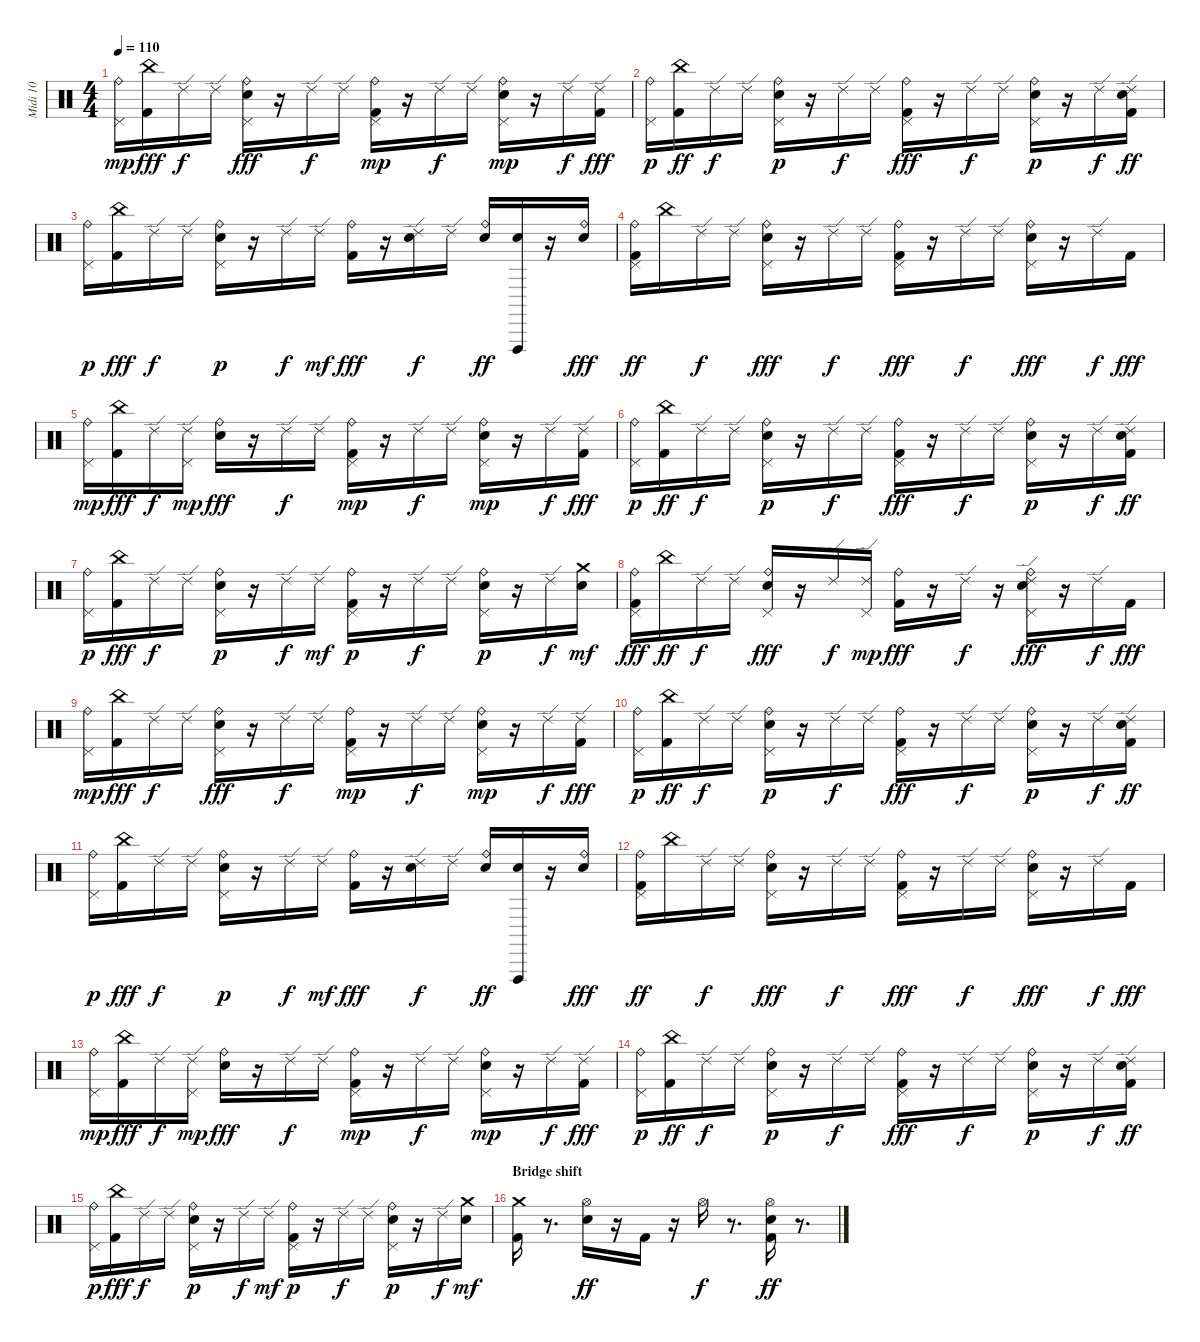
\track ("Midi 10" "Midi 10") {instrument percussion}
\staff {score}
\articulation defaults
\ts (4 4)
\tempo 110
\clef neutral
\ks c
("Ride (bell)" "Pedal Hi-Hat (hit)").16{dy mp} ("China (hit)" "Kick (hit) 2").16{dy fff} "Ride (edge) 2".16{dy f} "Ride (edge) 2".16 ("Pedal Hi-Hat (hit)" "Ride (bell)" "Snare (hit) 2").16{dy fff} r.16 "Ride (edge) 2".16{dy f} "Ride (edge) 2".16 ("Ride (bell)" "Kick (hit) 2" "Pedal Hi-Hat (hit)").16{dy mp} r.16 "Ride (edge) 2".16{dy f} "Ride (edge) 2".16 ("Ride (bell)" "Snare (hit) 2" "Pedal Hi-Hat (hit)").16{dy mp} r.16 "Ride (edge) 2".16{dy f} ("Ride (edge) 2" "Kick (hit) 2").16{dy fff} |
("Ride (bell)" "Pedal Hi-Hat (hit)").16{dy p} ("Kick (hit) 2" "China (hit)").16{dy ff} "Ride (edge) 2".16{dy f} "Ride (edge) 2".16 ("Ride (bell)" "Snare (hit) 2" "Pedal Hi-Hat (hit)").16{dy p} r.16 "Ride (edge) 2".16{dy f} "Ride (edge) 2".16 ("Ride (bell)" "Pedal Hi-Hat (hit)" "Kick (hit) 2").16{dy fff} r.16 "Ride (edge) 2".16{dy f} "Ride (edge) 2".16 ("Ride (bell)" "Snare (hit) 2" "Pedal Hi-Hat (hit)").16{dy p} r.16 "Ride (edge) 2".16{dy f} ("Ride (edge) 2" "Kick (hit) 2" "Snare (hit) 2").16{dy ff} |
("Ride (bell)" "Pedal Hi-Hat (hit)").16{dy p} ("China (hit)" "Kick (hit) 2").16{dy fff} "Ride (edge) 2".16{dy f} "Ride (edge) 2".16 ("Ride (bell)" "Snare (hit) 2" "Pedal Hi-Hat (hit)").16{dy p} r.16 "Ride (edge) 2".16{dy f} "Ride (edge) 2".16{dy mf} ("Ride (bell)" "Kick (hit) 2").16{dy fff} r.16 ("Ride (edge) 2" "Snare (hit) 2").16{dy f} "Ride (edge) 2".16 ("Ride (bell)" "Snare (hit) 2").16{dy ff} ("Vibraslap (hit)" "Snare (hit) 2").16 r.16 ("Ride (bell)" "Snare (hit) 2").16{dy fff} |
("Pedal Hi-Hat (hit)" "Kick (hit) 2" "Ride (bell)").16{dy ff} "China (hit)".16 "Ride (edge) 2".16{dy f} "Ride (edge) 2".16 ("Ride (bell)" "Pedal Hi-Hat (hit)" "Snare (hit) 2").16{dy fff} r.16 "Ride (edge) 2".16{dy f} "Ride (edge) 2".16 ("Pedal Hi-Hat (hit)" "Ride (bell)" "Kick (hit) 2").16{dy fff} r.16 "Ride (edge) 2".16{dy f} "Ride (edge) 2".16 ("Ride (bell)" "Pedal Hi-Hat (hit)" "Snare (hit) 2").16{dy fff} r.16 "Ride (edge) 2".16{dy f} "Kick (hit) 2".16{dy fff} |
("Ride (bell)" "Pedal Hi-Hat (hit)").16{dy mp} ("China (hit)" "Kick (hit) 2").16{dy fff} "Ride (edge) 2".16{dy f} ("Ride (edge) 2" "Pedal Hi-Hat (hit)").16{dy mp} ("Ride (bell)" "Snare (hit) 2").16{dy fff} r.16 "Ride (edge) 2".16{dy f} "Ride (edge) 2".16 ("Ride (bell)" "Kick (hit) 2" "Pedal Hi-Hat (hit)").16{dy mp} r.16 "Ride (edge) 2".16{dy f} "Ride (edge) 2".16 ("Ride (bell)" "Snare (hit) 2" "Pedal Hi-Hat (hit)").16{dy mp} r.16 "Ride (edge) 2".16{dy f} ("Ride (edge) 2" "Kick (hit) 2").16{dy fff} |
("Ride (bell)" "Pedal Hi-Hat (hit)").16{dy p} ("Kick (hit) 2" "China (hit)").16{dy ff} "Ride (edge) 2".16{dy f} "Ride (edge) 2".16 ("Ride (bell)" "Snare (hit) 2" "Pedal Hi-Hat (hit)").16{dy p} r.16 "Ride (edge) 2".16{dy f} "Ride (edge) 2".16 ("Ride (bell)" "Pedal Hi-Hat (hit)" "Kick (hit) 2").16{dy fff} r.16 "Ride (edge) 2".16{dy f} "Ride (edge) 2".16 ("Ride (bell)" "Snare (hit) 2" "Pedal Hi-Hat (hit)").16{dy p} r.16 "Ride (edge) 2".16{dy f} ("Ride (edge) 2" "Kick (hit) 2" "Snare (hit) 2").16{dy ff} |
("Ride (bell)" "Pedal Hi-Hat (hit)").16{dy p} ("China (hit)" "Kick (hit) 2").16{dy fff} "Ride (edge) 2".16{dy f} "Ride (edge) 2".16 ("Ride (bell)" "Snare (hit) 2" "Pedal Hi-Hat (hit)").16{dy p} r.16 "Ride (edge) 2".16{dy f} "Ride (edge) 2".16{dy mf} ("Ride (bell)" "Kick (hit) 2" "Pedal Hi-Hat (hit)").16{dy p} r.16 "Ride (edge) 2".16{dy f} "Ride (edge) 2".16 ("Ride (bell)" "Snare (hit) 2" "Pedal Hi-Hat (hit)").16{dy p} r.16 "Ride (edge) 2".16{dy f} ("Crash medium (hit)" "Snare (hit) 2").16{dy mf} |
("Pedal Hi-Hat (hit)" "Ride (bell)" "Kick (hit) 2").16{dy fff} "China (hit)".16{dy ff} "Ride (edge) 2".16{dy f} "Ride (edge) 2".16 ("Ride (bell)" "Pedal Hi-Hat (hit)" "Snare (hit) 2").16{dy fff} r.16 "Ride (edge) 2".16{dy f} ("Ride (edge) 2" "Pedal Hi-Hat (hit)").16{dy mp} ("Ride (bell)" "Kick (hit) 2").16{dy fff} r.16 "Ride (edge) 2".16{dy f} r.16 ("Ride (edge) 2" "Ride (bell)" "Pedal Hi-Hat (hit)" "Snare (hit) 2").16{dy fff} r.16 "Ride (edge) 2".16{dy f} "Kick (hit) 2".16{dy fff} |
("Ride (bell)" "Pedal Hi-Hat (hit)").16{dy mp} ("China (hit)" "Kick (hit) 2").16{dy fff} "Ride (edge) 2".16{dy f} "Ride (edge) 2".16 ("Pedal Hi-Hat (hit)" "Ride (bell)" "Snare (hit) 2").16{dy fff} r.16 "Ride (edge) 2".16{dy f} "Ride (edge) 2".16 ("Ride (bell)" "Kick (hit) 2" "Pedal Hi-Hat (hit)").16{dy mp} r.16 "Ride (edge) 2".16{dy f} "Ride (edge) 2".16 ("Ride (bell)" "Snare (hit) 2" "Pedal Hi-Hat (hit)").16{dy mp} r.16 "Ride (edge) 2".16{dy f} ("Ride (edge) 2" "Kick (hit) 2").16{dy fff} |
("Ride (bell)" "Pedal Hi-Hat (hit)").16{dy p} ("Kick (hit) 2" "China (hit)").16{dy ff} "Ride (edge) 2".16{dy f} "Ride (edge) 2".16 ("Ride (bell)" "Snare (hit) 2" "Pedal Hi-Hat (hit)").16{dy p} r.16 "Ride (edge) 2".16{dy f} "Ride (edge) 2".16 ("Ride (bell)" "Pedal Hi-Hat (hit)" "Kick (hit) 2").16{dy fff} r.16 "Ride (edge) 2".16{dy f} "Ride (edge) 2".16 ("Ride (bell)" "Snare (hit) 2" "Pedal Hi-Hat (hit)").16{dy p} r.16 "Ride (edge) 2".16{dy f} ("Ride (edge) 2" "Kick (hit) 2" "Snare (hit) 2").16{dy ff} |
("Ride (bell)" "Pedal Hi-Hat (hit)").16{dy p} ("China (hit)" "Kick (hit) 2").16{dy fff} "Ride (edge) 2".16{dy f} "Ride (edge) 2".16 ("Ride (bell)" "Snare (hit) 2" "Pedal Hi-Hat (hit)").16{dy p} r.16 "Ride (edge) 2".16{dy f} "Ride (edge) 2".16{dy mf} ("Ride (bell)" "Kick (hit) 2").16{dy fff} r.16 ("Ride (edge) 2" "Snare (hit) 2").16{dy f} "Ride (edge) 2".16 ("Ride (bell)" "Snare (hit) 2").16{dy ff} ("Vibraslap (hit)" "Snare (hit) 2").16 r.16 ("Ride (bell)" "Snare (hit) 2").16{dy fff} |
("Pedal Hi-Hat (hit)" "Kick (hit) 2" "Ride (bell)").16{dy ff} "China (hit)".16 "Ride (edge) 2".16{dy f} "Ride (edge) 2".16 ("Ride (bell)" "Pedal Hi-Hat (hit)" "Snare (hit) 2").16{dy fff} r.16 "Ride (edge) 2".16{dy f} "Ride (edge) 2".16 ("Pedal Hi-Hat (hit)" "Ride (bell)" "Kick (hit) 2").16{dy fff} r.16 "Ride (edge) 2".16{dy f} "Ride (edge) 2".16 ("Ride (bell)" "Pedal Hi-Hat (hit)" "Snare (hit) 2").16{dy fff} r.16 "Ride (edge) 2".16{dy f} "Kick (hit) 2".16{dy fff} |
("Ride (bell)" "Pedal Hi-Hat (hit)").16{dy mp} ("China (hit)" "Kick (hit) 2").16{dy fff} "Ride (edge) 2".16{dy f} ("Ride (edge) 2" "Pedal Hi-Hat (hit)").16{dy mp} ("Ride (bell)" "Snare (hit) 2").16{dy fff} r.16 "Ride (edge) 2".16{dy f} "Ride (edge) 2".16 ("Ride (bell)" "Kick (hit) 2" "Pedal Hi-Hat (hit)").16{dy mp} r.16 "Ride (edge) 2".16{dy f} "Ride (edge) 2".16 ("Ride (bell)" "Snare (hit) 2" "Pedal Hi-Hat (hit)").16{dy mp} r.16 "Ride (edge) 2".16{dy f} ("Ride (edge) 2" "Kick (hit) 2").16{dy fff} |
("Ride (bell)" "Pedal Hi-Hat (hit)").16{dy p} ("Kick (hit) 2" "China (hit)").16{dy ff} "Ride (edge) 2".16{dy f} "Ride (edge) 2".16 ("Ride (bell)" "Snare (hit) 2" "Pedal Hi-Hat (hit)").16{dy p} r.16 "Ride (edge) 2".16{dy f} "Ride (edge) 2".16 ("Ride (bell)" "Pedal Hi-Hat (hit)" "Kick (hit) 2").16{dy fff} r.16 "Ride (edge) 2".16{dy f} "Ride (edge) 2".16 ("Ride (bell)" "Snare (hit) 2" "Pedal Hi-Hat (hit)").16{dy p} r.16 "Ride (edge) 2".16{dy f} ("Ride (edge) 2" "Kick (hit) 2" "Snare (hit) 2").16{dy ff} |
("Ride (bell)" "Pedal Hi-Hat (hit)").16{dy p} ("China (hit)" "Kick (hit) 2").16{dy fff} "Ride (edge) 2".16{dy f} "Ride (edge) 2".16 ("Ride (bell)" "Snare (hit) 2" "Pedal Hi-Hat (hit)").16{dy p} r.16 "Ride (edge) 2".16{dy f} "Ride (edge) 2".16{dy mf} ("Ride (bell)" "Kick (hit) 2" "Pedal Hi-Hat (hit)").16{dy p} r.16 "Ride (edge) 2".16{dy f} "Ride (edge) 2".16 ("Ride (bell)" "Snare (hit) 2" "Pedal Hi-Hat (hit)").16{dy p} r.16 "Ride (edge) 2".16{dy f} ("Crash medium (hit)" "Snare (hit) 2").16{dy mf} |
\section ("" "Bridge shift")
("Kick (hit) 2" "Crash medium (hit)").16 r.8{d} ("Snare (hit) 2" "Hi-Hat (open)").16{dy ff} r.16 "Kick (hit) 2".16 r.16 "Hi-Hat (open)".16{dy f} r.8{d} ("Kick (hit) 2" "Snare (hit) 2" "Hi-Hat (open)").16{dy ff} r.8{d}
